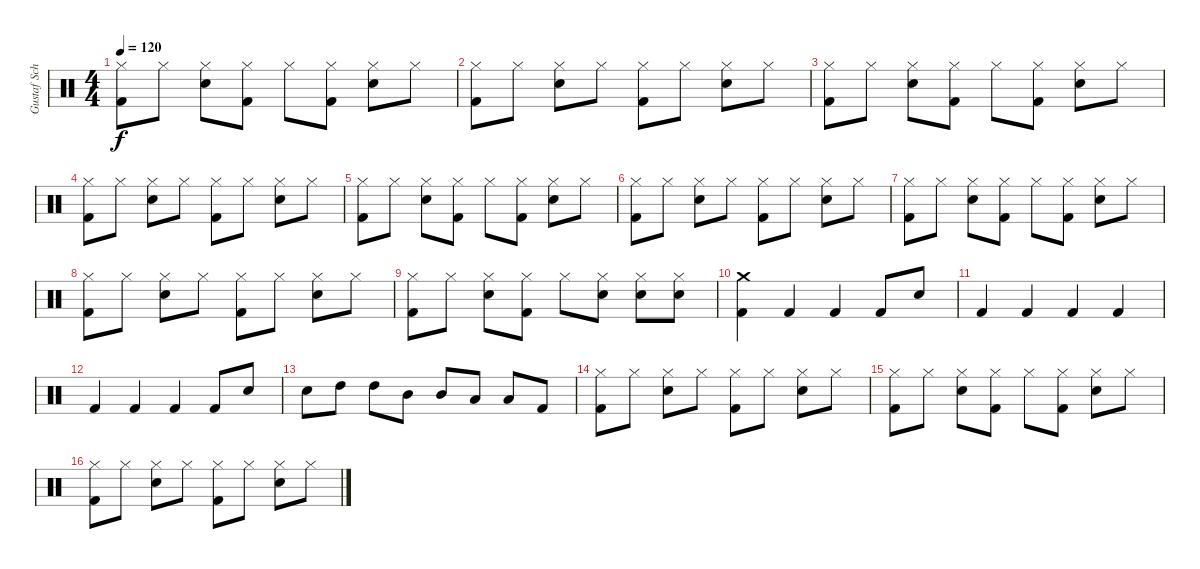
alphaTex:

\track ("Gustaf Schafer" "Gustaf Sch") {instrument percussion}
\staff {score}
\articulation defaults
\ts (4 4)
\tempo 120
\clef neutral
\ks c
("Hi-Hat (closed)" "Kick (hit) 2").8{dy f} "Hi-Hat (closed)".8 ("Hi-Hat (closed)" "Snare (hit) 2").8 ("Hi-Hat (closed)" "Kick (hit) 2").8 "Hi-Hat (closed)".8 ("Hi-Hat (closed)" "Kick (hit) 2").8 ("Hi-Hat (closed)" "Snare (hit) 2").8 "Hi-Hat (closed)".8 |
("Hi-Hat (closed)" "Kick (hit) 2").8 "Hi-Hat (closed)".8 ("Hi-Hat (closed)" "Snare (hit) 2").8 "Hi-Hat (closed)".8 ("Hi-Hat (closed)" "Kick (hit) 2").8 "Hi-Hat (closed)".8 ("Hi-Hat (closed)" "Snare (hit) 2").8 "Hi-Hat (closed)".8 |
("Hi-Hat (closed)" "Kick (hit) 2").8 "Hi-Hat (closed)".8 ("Hi-Hat (closed)" "Snare (hit) 2").8 ("Hi-Hat (closed)" "Kick (hit) 2").8 "Hi-Hat (closed)".8 ("Hi-Hat (closed)" "Kick (hit) 2").8 ("Hi-Hat (closed)" "Snare (hit) 2").8 "Hi-Hat (closed)".8 |
("Hi-Hat (closed)" "Kick (hit) 2").8 "Hi-Hat (closed)".8 ("Hi-Hat (closed)" "Snare (hit) 2").8 "Hi-Hat (closed)".8 ("Hi-Hat (closed)" "Kick (hit) 2").8 "Hi-Hat (closed)".8 ("Hi-Hat (closed)" "Snare (hit) 2").8 "Hi-Hat (closed)".8 |
("Hi-Hat (closed)" "Kick (hit) 2").8 "Hi-Hat (closed)".8 ("Hi-Hat (closed)" "Snare (hit) 2").8 ("Hi-Hat (closed)" "Kick (hit) 2").8 "Hi-Hat (closed)".8 ("Hi-Hat (closed)" "Kick (hit) 2").8 ("Hi-Hat (closed)" "Snare (hit) 2").8 "Hi-Hat (closed)".8 |
("Hi-Hat (closed)" "Kick (hit) 2").8 "Hi-Hat (closed)".8 ("Hi-Hat (closed)" "Snare (hit) 2").8 "Hi-Hat (closed)".8 ("Hi-Hat (closed)" "Kick (hit) 2").8 "Hi-Hat (closed)".8 ("Hi-Hat (closed)" "Snare (hit) 2").8 "Hi-Hat (closed)".8 |
("Hi-Hat (closed)" "Kick (hit) 2").8 "Hi-Hat (closed)".8 ("Hi-Hat (closed)" "Snare (hit) 2").8 ("Hi-Hat (closed)" "Kick (hit) 2").8 "Hi-Hat (closed)".8 ("Hi-Hat (closed)" "Kick (hit) 2").8 ("Hi-Hat (closed)" "Snare (hit) 2").8 "Hi-Hat (closed)".8 |
("Hi-Hat (closed)" "Kick (hit) 2").8 "Hi-Hat (closed)".8 ("Hi-Hat (closed)" "Snare (hit) 2").8 "Hi-Hat (closed)".8 ("Hi-Hat (closed)" "Kick (hit) 2").8 "Hi-Hat (closed)".8 ("Hi-Hat (closed)" "Snare (hit) 2").8 "Hi-Hat (closed)".8 |
("Hi-Hat (closed)" "Kick (hit) 2").8 "Hi-Hat (closed)".8 ("Hi-Hat (closed)" "Snare (hit) 2").8 ("Hi-Hat (closed)" "Kick (hit) 2").8 "Hi-Hat (closed)".8 ("Hi-Hat (closed)" "Snare (hit) 2").8 ("Hi-Hat (closed)" "Snare (hit) 2").8 ("Hi-Hat (closed)" "Snare (hit) 2").8 |
("Crash medium (hit)" "Kick (hit) 2").4 "Kick (hit) 2".4 "Kick (hit) 2".4 "Kick (hit) 2".8 "Snare (hit) 2".8 |
"Kick (hit) 2".4 "Kick (hit) 2".4 "Kick (hit) 2".4 "Kick (hit) 2".4 |
"Kick (hit) 2".4 "Kick (hit) 2".4 "Kick (hit) 2".4 "Kick (hit) 2".8 "Snare (hit) 2".8 |
"Snare (hit) 2".8 "High Tom (hit)".8 "High Tom (hit)".8 "Mid Tom (hit)".8 "Mid Tom (hit)".8 "Low Tom (hit)".8 "Low Tom (hit)".8 "Kick (hit) 2".8 |
("Hi-Hat (closed)" "Kick (hit) 2").8 "Hi-Hat (closed)".8 ("Hi-Hat (closed)" "Snare (hit) 2").8 "Hi-Hat (closed)".8 ("Hi-Hat (closed)" "Kick (hit) 2").8 "Hi-Hat (closed)".8 ("Hi-Hat (closed)" "Snare (hit) 2").8 "Hi-Hat (closed)".8 |
("Hi-Hat (closed)" "Kick (hit) 2").8 "Hi-Hat (closed)".8 ("Hi-Hat (closed)" "Snare (hit) 2").8 ("Hi-Hat (closed)" "Kick (hit) 2").8 "Hi-Hat (closed)".8 ("Hi-Hat (closed)" "Kick (hit) 2").8 ("Hi-Hat (closed)" "Snare (hit) 2").8 "Hi-Hat (closed)".8 |
("Hi-Hat (closed)" "Kick (hit) 2").8 "Hi-Hat (closed)".8 ("Hi-Hat (closed)" "Snare (hit) 2").8 "Hi-Hat (closed)".8 ("Hi-Hat (closed)" "Kick (hit) 2").8 "Hi-Hat (closed)".8 ("Hi-Hat (closed)" "Snare (hit) 2").8 "Hi-Hat (closed)".8
